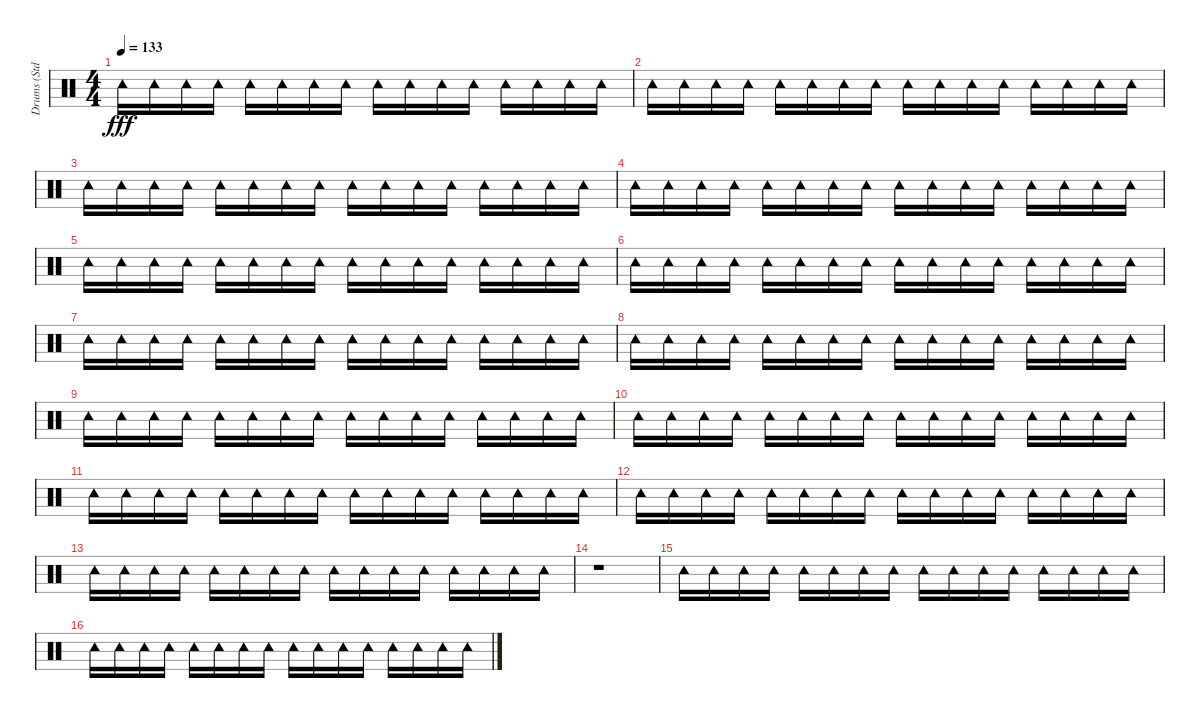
\track ("Drums (Std.)" "Drums (Std") {instrument percussion}
\staff {score}
\articulation defaults
\ts (4 4)
\tempo 133
\clef neutral
\ks c "Tambourine (hit)".16{dy fff} "Tambourine (hit)".16 "Tambourine (hit)".16 "Tambourine (hit)".16 "Tambourine (hit)".16 "Tambourine (hit)".16 "Tambourine (hit)".16 "Tambourine (hit)".16 "Tambourine (hit)".16 "Tambourine (hit)".16 "Tambourine (hit)".16 "Tambourine (hit)".16 "Tambourine (hit)".16 "Tambourine (hit)".16 "Tambourine (hit)".16 "Tambourine (hit)".16
|
"Tambourine (hit)".16 "Tambourine (hit)".16 "Tambourine (hit)".16 "Tambourine (hit)".16 "Tambourine (hit)".16 "Tambourine (hit)".16 "Tambourine (hit)".16 "Tambourine (hit)".16 "Tambourine (hit)".16 "Tambourine (hit)".16 "Tambourine (hit)".16 "Tambourine (hit)".16 "Tambourine (hit)".16 "Tambourine (hit)".16 "Tambourine (hit)".16 "Tambourine (hit)".16 |
"Tambourine (hit)".16 "Tambourine (hit)".16 "Tambourine (hit)".16 "Tambourine (hit)".16 "Tambourine (hit)".16 "Tambourine (hit)".16 "Tambourine (hit)".16 "Tambourine (hit)".16 "Tambourine (hit)".16 "Tambourine (hit)".16 "Tambourine (hit)".16 "Tambourine (hit)".16 "Tambourine (hit)".16 "Tambourine (hit)".16 "Tambourine (hit)".16 "Tambourine (hit)".16 |
"Tambourine (hit)".16 "Tambourine (hit)".16 "Tambourine (hit)".16 "Tambourine (hit)".16 "Tambourine (hit)".16 "Tambourine (hit)".16 "Tambourine (hit)".16 "Tambourine (hit)".16 "Tambourine (hit)".16 "Tambourine (hit)".16 "Tambourine (hit)".16 "Tambourine (hit)".16 "Tambourine (hit)".16 "Tambourine (hit)".16 "Tambourine (hit)".16 "Tambourine (hit)".16 |
"Tambourine (hit)".16 "Tambourine (hit)".16 "Tambourine (hit)".16 "Tambourine (hit)".16 "Tambourine (hit)".16 "Tambourine (hit)".16 "Tambourine (hit)".16 "Tambourine (hit)".16 "Tambourine (hit)".16 "Tambourine (hit)".16 "Tambourine (hit)".16 "Tambourine (hit)".16 "Tambourine (hit)".16 "Tambourine (hit)".16 "Tambourine (hit)".16 "Tambourine (hit)".16 |
"Tambourine (hit)".16 "Tambourine (hit)".16 "Tambourine (hit)".16 "Tambourine (hit)".16 "Tambourine (hit)".16 "Tambourine (hit)".16 "Tambourine (hit)".16 "Tambourine (hit)".16 "Tambourine (hit)".16 "Tambourine (hit)".16 "Tambourine (hit)".16 "Tambourine (hit)".16 "Tambourine (hit)".16 "Tambourine (hit)".16 "Tambourine (hit)".16 "Tambourine (hit)".16 |
"Tambourine (hit)".16 "Tambourine (hit)".16 "Tambourine (hit)".16 "Tambourine (hit)".16 "Tambourine (hit)".16 "Tambourine (hit)".16 "Tambourine (hit)".16 "Tambourine (hit)".16 "Tambourine (hit)".16 "Tambourine (hit)".16 "Tambourine (hit)".16 "Tambourine (hit)".16 "Tambourine (hit)".16 "Tambourine (hit)".16 "Tambourine (hit)".16 "Tambourine (hit)".16 |
"Tambourine (hit)".16 "Tambourine (hit)".16 "Tambourine (hit)".16 "Tambourine (hit)".16 "Tambourine (hit)".16 "Tambourine (hit)".16 "Tambourine (hit)".16 "Tambourine (hit)".16 "Tambourine (hit)".16 "Tambourine (hit)".16 "Tambourine (hit)".16 "Tambourine (hit)".16 "Tambourine (hit)".16 "Tambourine (hit)".16 "Tambourine (hit)".16 "Tambourine (hit)".16 |
"Tambourine (hit)".16 "Tambourine (hit)".16 "Tambourine (hit)".16 "Tambourine (hit)".16 "Tambourine (hit)".16 "Tambourine (hit)".16 "Tambourine (hit)".16 "Tambourine (hit)".16 "Tambourine (hit)".16 "Tambourine (hit)".16 "Tambourine (hit)".16 "Tambourine (hit)".16 "Tambourine (hit)".16 "Tambourine (hit)".16 "Tambourine (hit)".16 "Tambourine (hit)".16 |
"Tambourine (hit)".16 "Tambourine (hit)".16 "Tambourine (hit)".16 "Tambourine (hit)".16 "Tambourine (hit)".16 "Tambourine (hit)".16 "Tambourine (hit)".16 "Tambourine (hit)".16 "Tambourine (hit)".16 "Tambourine (hit)".16 "Tambourine (hit)".16 "Tambourine (hit)".16 "Tambourine (hit)".16 "Tambourine (hit)".16 "Tambourine (hit)".16 "Tambourine (hit)".16 |
"Tambourine (hit)".16 "Tambourine (hit)".16 "Tambourine (hit)".16 "Tambourine (hit)".16 "Tambourine (hit)".16 "Tambourine (hit)".16 "Tambourine (hit)".16 "Tambourine (hit)".16 "Tambourine (hit)".16 "Tambourine (hit)".16 "Tambourine (hit)".16 "Tambourine (hit)".16 "Tambourine (hit)".16 "Tambourine (hit)".16 "Tambourine (hit)".16 "Tambourine (hit)".16 |
"Tambourine (hit)".16 "Tambourine (hit)".16 "Tambourine (hit)".16 "Tambourine (hit)".16 "Tambourine (hit)".16 "Tambourine (hit)".16 "Tambourine (hit)".16 "Tambourine (hit)".16 "Tambourine (hit)".16 "Tambourine (hit)".16 "Tambourine (hit)".16 "Tambourine (hit)".16 "Tambourine (hit)".16 "Tambourine (hit)".16 "Tambourine (hit)".16 "Tambourine (hit)".16 |
"Tambourine (hit)".16 "Tambourine (hit)".16 "Tambourine (hit)".16 "Tambourine (hit)".16 "Tambourine (hit)".16 "Tambourine (hit)".16 "Tambourine (hit)".16 "Tambourine (hit)".16 "Tambourine (hit)".16 "Tambourine (hit)".16 "Tambourine (hit)".16 "Tambourine (hit)".16 "Tambourine (hit)".16 "Tambourine (hit)".16 "Tambourine (hit)".16 "Tambourine (hit)".16 |
r.1 |
"Tambourine (hit)".16 "Tambourine (hit)".16 "Tambourine (hit)".16 "Tambourine (hit)".16 "Tambourine (hit)".16 "Tambourine (hit)".16 "Tambourine (hit)".16 "Tambourine (hit)".16 "Tambourine (hit)".16 "Tambourine (hit)".16 "Tambourine (hit)".16 "Tambourine (hit)".16 "Tambourine (hit)".16 "Tambourine (hit)".16 "Tambourine (hit)".16 "Tambourine (hit)".16 |
"Tambourine (hit)".16 "Tambourine (hit)".16 "Tambourine (hit)".16 "Tambourine (hit)".16 "Tambourine (hit)".16 "Tambourine (hit)".16 "Tambourine (hit)".16 "Tambourine (hit)".16 "Tambourine (hit)".16 "Tambourine (hit)".16 "Tambourine (hit)".16 "Tambourine (hit)".16 "Tambourine (hit)".16 "Tambourine (hit)".16 "Tambourine (hit)".16 "Tambourine (hit)".16
